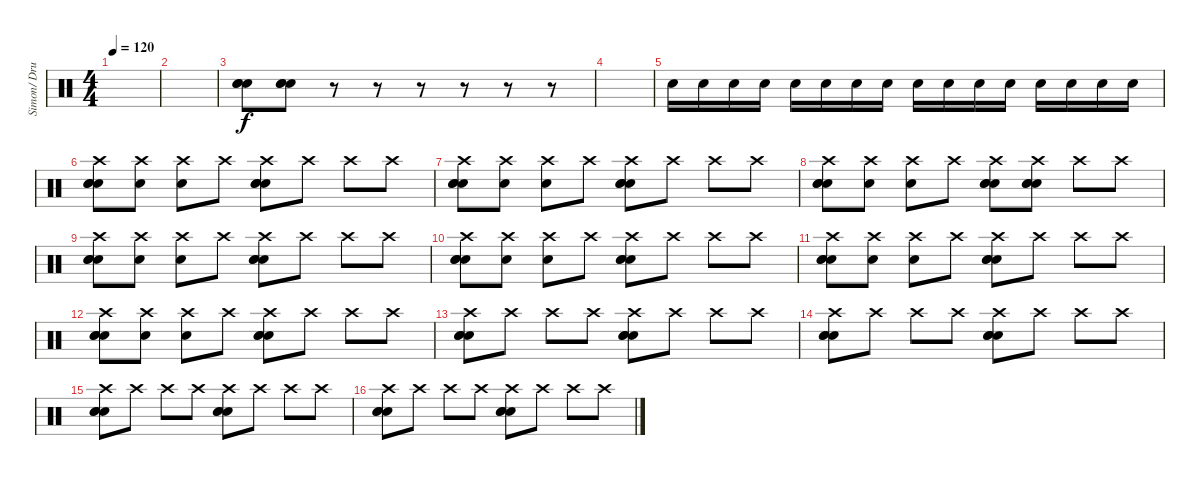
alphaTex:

\track ("Simon/ Drums" "Simon/ Dru") {instrument percussion}
\staff {score}
\articulation defaults
\ts (4 4)
\tempo 120
\clef neutral
\ks c
|
|
("Snare (hit) 2" "Snare (hit) 2" "Snare (hit) 2").8 ("Snare (hit) 2" "Snare (hit) 2" "Snare (hit) 2").8 r.8 r.8 r.8 r.8 r.8 r.8 |
|
"Electric Snare (hit)".16 "Electric Snare (hit)".16 "Electric Snare (hit)".16 "Electric Snare (hit)".16 "Electric Snare (hit)".16 "Electric Snare (hit)".16 "Electric Snare (hit)".16 "Electric Snare (hit)".16 "Snare (hit) 2".16 "Snare (hit) 2".16 "Snare (hit) 2".16 "Snare (hit) 2".16 "Snare (hit) 2".16 "Snare (hit) 2".16 "Snare (hit) 2".16 "Snare (hit) 2".16 |
("Crash high (hit)" "Snare (hit) 2" "Snare (hit) 2" "Snare (hit) 2").8 ("Crash high (hit)" "Electric Snare (hit)").8 ("Crash high (hit)" "Electric Snare (hit)").8 "Crash high (hit)".8 ("Crash high (hit)" "Snare (hit) 2" "Snare (hit) 2" "Snare (hit) 2").8 "Crash high (hit)".8 "Crash high (hit)".8 "Crash high (hit)".8 |
("Crash high (hit)" "Snare (hit) 2" "Snare (hit) 2" "Snare (hit) 2").8 ("Crash high (hit)" "Electric Snare (hit)").8 ("Crash high (hit)" "Electric Snare (hit)").8 "Crash high (hit)".8 ("Crash high (hit)" "Snare (hit) 2" "Snare (hit) 2" "Snare (hit) 2").8 "Crash high (hit)".8 "Crash high (hit)".8 "Crash high (hit)".8 |
("Crash high (hit)" "Snare (hit) 2" "Snare (hit) 2" "Snare (hit) 2").8 ("Crash high (hit)" "Electric Snare (hit)").8 ("Crash high (hit)" "Electric Snare (hit)").8 "Crash high (hit)".8 ("Crash high (hit)" "Snare (hit) 2" "Snare (hit) 2" "Snare (hit) 2").8 ("Crash high (hit)" "Snare (hit) 2" "Snare (hit) 2" "Snare (hit) 2").8 "Crash high (hit)".8 "Crash high (hit)".8 |
("Crash high (hit)" "Snare (hit) 2" "Snare (hit) 2" "Snare (hit) 2").8 ("Crash high (hit)" "Electric Snare (hit)").8 ("Crash high (hit)" "Electric Snare (hit)").8 "Crash high (hit)".8 ("Crash high (hit)" "Snare (hit) 2" "Snare (hit) 2" "Snare (hit) 2").8 "Crash high (hit)".8 "Crash high (hit)".8 "Crash high (hit)".8 |
("Crash high (hit)" "Snare (hit) 2" "Snare (hit) 2" "Snare (hit) 2").8 ("Crash high (hit)" "Electric Snare (hit)").8 ("Crash high (hit)" "Electric Snare (hit)").8 "Crash high (hit)".8 ("Crash high (hit)" "Snare (hit) 2" "Snare (hit) 2" "Snare (hit) 2").8 "Crash high (hit)".8 "Crash high (hit)".8 "Crash high (hit)".8 |
("Crash high (hit)" "Snare (hit) 2" "Snare (hit) 2" "Snare (hit) 2").8 ("Crash high (hit)" "Electric Snare (hit)").8 ("Crash high (hit)" "Electric Snare (hit)").8 "Crash high (hit)".8 ("Crash high (hit)" "Snare (hit) 2" "Snare (hit) 2" "Snare (hit) 2").8 "Crash high (hit)".8 "Crash high (hit)".8 "Crash high (hit)".8 |
("Crash high (hit)" "Snare (hit) 2" "Snare (hit) 2" "Snare (hit) 2").8 ("Crash high (hit)" "Electric Snare (hit)").8 ("Crash high (hit)" "Electric Snare (hit)").8 "Crash high (hit)".8 ("Crash high (hit)" "Snare (hit) 2" "Snare (hit) 2" "Snare (hit) 2").8 "Crash high (hit)".8 "Crash high (hit)".8 "Crash high (hit)".8 |
("Crash high (hit)" "Snare (hit) 2" "Snare (hit) 2" "Snare (hit) 2").8 "Crash high (hit)".8 "Crash high (hit)".8 "Crash high (hit)".8 ("Crash high (hit)" "Snare (hit) 2" "Snare (hit) 2" "Snare (hit) 2").8 "Crash high (hit)".8 "Crash high (hit)".8 "Crash high (hit)".8 |
("Crash high (hit)" "Snare (hit) 2" "Snare (hit) 2" "Snare (hit) 2").8 "Crash high (hit)".8 "Crash high (hit)".8 "Crash high (hit)".8 ("Crash high (hit)" "Snare (hit) 2" "Snare (hit) 2" "Snare (hit) 2").8 "Crash high (hit)".8 "Crash high (hit)".8 "Crash high (hit)".8 |
("Crash high (hit)" "Snare (hit) 2" "Snare (hit) 2" "Snare (hit) 2").8 "Crash high (hit)".8 "Crash high (hit)".8 "Crash high (hit)".8 ("Crash high (hit)" "Snare (hit) 2" "Snare (hit) 2" "Snare (hit) 2").8 "Crash high (hit)".8 "Crash high (hit)".8 "Crash high (hit)".8 |
("Crash high (hit)" "Snare (hit) 2" "Snare (hit) 2" "Snare (hit) 2").8 "Crash high (hit)".8 "Crash high (hit)".8 "Crash high (hit)".8 ("Crash high (hit)" "Snare (hit) 2" "Snare (hit) 2" "Snare (hit) 2").8 "Crash high (hit)".8 "Crash high (hit)".8 "Crash high (hit)".8
